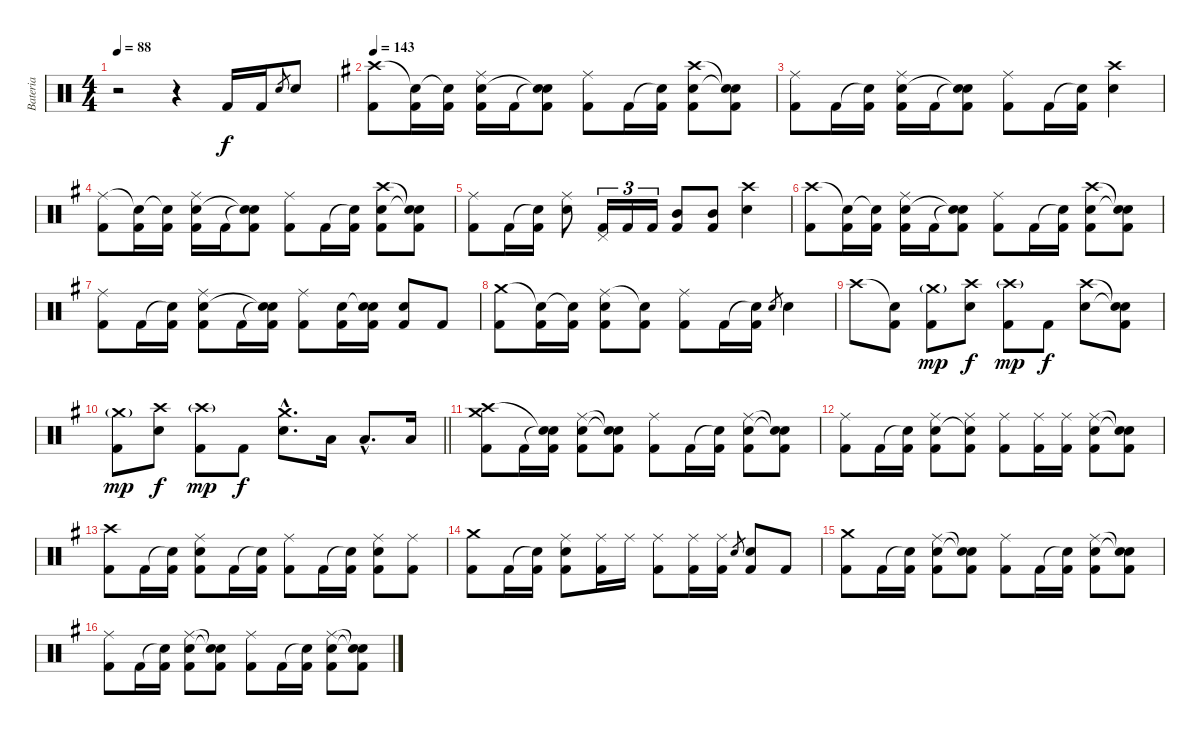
\track ("Bateria" "Bateria") {instrument percussion}
\staff {score}
\articulation defaults
\ts (4 4)
\tempo 88
\clef neutral
\ks c
r.2{dy f} r.4 "Kick (hit) 2".16 "Kick (hit) 2".16 "Electric Snare (hit)".8{gr} "Electric Snare (hit)".8 |
\tempo 143
\ks g
("Crash high (hit)" "Kick (hit) 2").8 ("Snare (hit)"{t} "Kick (hit) 2").16 ("Snare (hit)"{t} "Kick (hit) 2").16 ("Ride (middle)" "Electric Snare (hit)" "Kick (hit) 2").16 "Kick (hit) 2".16 ("Snare (hit)"{t} "Snare (hit)"{t} "Kick (hit) 2").8 ("Ride (middle)" "Kick (hit) 2").8 "Kick (hit) 2".16 ("Snare (hit)"{t} "Kick (hit) 2").16 ("Crash high (hit)" "Electric Snare (hit)" "Kick (hit) 2").8 ("Snare (hit)"{t} "Snare (hit)"{t} "Kick (hit) 2").8 |
("Ride (middle)" "Kick (hit) 2").8 "Kick (hit) 2".16 ("Snare (hit)"{t} "Kick (hit) 2").16 ("Ride (middle)" "Electric Snare (hit)" "Kick (hit) 2").16 "Kick (hit) 2".16 ("Snare (hit)"{t} "Snare (hit)"{t} "Kick (hit) 2").8 ("Ride (middle)" "Kick (hit) 2").8 "Kick (hit) 2".16 ("Snare (hit)"{t} "Kick (hit) 2").16 ("Crash high (hit)" "Electric Snare (hit)").4 |
("Ride (middle)" "Kick (hit) 2").8 ("Snare (hit)"{t} "Kick (hit) 2").16 ("Snare (hit)"{t} "Kick (hit) 2").16 ("Ride (middle)" "Electric Snare (hit)" "Kick (hit) 2").16 "Kick (hit) 2".16 ("Snare (hit)"{t} "Snare (hit)"{t} "Kick (hit) 2").8 ("Ride (middle)" "Kick (hit) 2").8 "Kick (hit) 2".16 ("Snare (hit)"{t} "Kick (hit) 2").16 ("Crash high (hit)" "Electric Snare (hit)" "Kick (hit) 2").8 ("Snare (hit)"{t} "Snare (hit)"{t} "Kick (hit) 2").8 |
("Ride (middle)" "Kick (hit) 2").8 "Kick (hit) 2".16 ("Snare (hit)"{t} "Kick (hit) 2").16 ("Ride (middle)" "Electric Snare (hit)").8 ("Pedal Hi-Hat (hit)" "Kick (hit) 2").16{tu (3 2)} "Kick (hit) 2".16{tu (3 2)} "Kick (hit) 2".16{tu (3 2)} ("Mid Tom (hit)" "Kick (hit) 2").8 ("Mid Tom (hit)" "Kick (hit) 2").8 ("Crash high (hit)" "Electric Snare (hit)").4 |
("Crash high (hit)" "Kick (hit) 2").8 ("Snare (hit)"{t} "Kick (hit) 2").16 ("Snare (hit)"{t} "Kick (hit) 2").16 ("Ride (middle)" "Electric Snare (hit)" "Kick (hit) 2").16 "Kick (hit) 2".16 ("Snare (hit)"{t} "Snare (hit)"{t} "Kick (hit) 2").8 ("Ride (middle)" "Kick (hit) 2").8 "Kick (hit) 2".16 ("Snare (hit)"{t} "Kick (hit) 2").16 ("Crash high (hit)" "Electric Snare (hit)" "Kick (hit) 2").8 ("Snare (hit)"{t} "Snare (hit)"{t} "Kick (hit) 2").8 |
("Ride (middle)" "Kick (hit) 2").8 "Kick (hit) 2".16 ("Snare (hit)"{t} "Kick (hit) 2").16 ("Ride (middle)" "Electric Snare (hit)" "Kick (hit) 2").8 "Kick (hit) 2".16 ("Snare (hit)"{t} "Snare (hit)"{t} "Kick (hit) 2").16 ("Ride (middle)" "Kick (hit) 2").8 ("Electric Snare (hit)" "Kick (hit) 2").16 ("Snare (hit)"{t} "Electric Snare (hit)" "Kick (hit) 2").16 ("Electric Snare (hit)" "Kick (hit) 2").8 "Kick (hit) 2".8 |
("Crash medium (hit)" "Kick (hit) 2").8 ("Snare (hit)"{t} "Kick (hit) 2").16 ("Snare (hit)"{t} "Kick (hit) 2").16 ("Ride (middle)" "Electric Snare (hit)" "Kick (hit) 2").8 ("Snare (hit)"{t} "Kick (hit) 2").8 ("Ride (middle)" "Kick (hit) 2").8 "Kick (hit) 2".16 ("Snare (hit)"{t} "Kick (hit) 2").16 "Electric Snare (hit)".8{gr} "Electric Snare (hit)".4 |
"Crash high (hit)".8 ("Snare (hit)"{t} "Kick (hit) 2").8 ("Crash medium (hit)"{g} "Kick (hit) 2").8{dy mp} ("Crash high (hit)" "Electric Snare (hit)").8{dy f} ("Crash high (hit)"{g} "Kick (hit) 2").8{dy mp} "Kick (hit) 2".8{dy f} ("Crash high (hit)" "Electric Snare (hit)").8 ("Snare (hit)"{t} "Snare (hit)"{t} "Kick (hit) 2").8 |
\barLineRight lightlight
("Crash medium (hit)"{g} "Kick (hit) 2").8{dy mp} ("Crash high (hit)" "Electric Snare (hit)").8{dy f} ("Crash high (hit)"{g} "Kick (hit) 2").8{dy mp} "Kick (hit) 2".8{dy f} ("Crash medium (hit)"{hac} "Electric Snare (hit)"{hac}).8{d} "Low Tom (hit)".16 "Low Tom (hit)"{hac}.8{d} "Low Tom (hit)".16 |
("Crash medium (hit)" "Crash high (hit)" "Kick (hit) 2").8 "Kick (hit) 2".16 ("Snare (hit)"{t} "Snare (hit)"{t} "Kick (hit) 2").16 ("Ride (middle)" "Electric Snare (hit)" "Kick (hit) 2").8 ("Snare (hit)"{t} "Snare (hit)"{t} "Kick (hit) 2").8 ("Ride (middle)" "Kick (hit) 2").8 "Kick (hit) 2".16 ("Snare (hit)"{t} "Kick (hit) 2").16 ("Ride (middle)" "Electric Snare (hit)" "Kick (hit) 2").8 ("Snare (hit)"{t} "Snare (hit)"{t} "Kick (hit) 2").8 |
("Ride (middle)" "Kick (hit) 2").8 "Kick (hit) 2".16 ("Snare (hit)"{t} "Kick (hit) 2").16 ("Ride (middle)" "Electric Snare (hit)" "Kick (hit) 2").8 ("Ride (middle)" "Snare (hit)"{t} "Kick (hit) 2").8 ("Ride (middle)" "Kick (hit) 2").8 ("Ride (middle)" "Kick (hit) 2").16 ("Ride (middle)" "Kick (hit) 2").16 ("Ride (middle)" "Electric Snare (hit)" "Kick (hit) 2").8 ("Snare (hit)"{t} "Snare (hit)"{t} "Kick (hit) 2").8 |
("Crash high (hit)" "Kick (hit) 2").8 "Kick (hit) 2".16 ("Snare (hit)"{t} "Kick (hit) 2").16 ("Ride (middle)" "Electric Snare (hit)" "Kick (hit) 2").8 "Kick (hit) 2".16 ("Snare (hit)"{t} "Kick (hit) 2").16 ("Ride (middle)" "Kick (hit) 2").8 "Kick (hit) 2".16 ("Snare (hit)"{t} "Kick (hit) 2").16 ("Ride (middle)" "Electric Snare (hit)" "Kick (hit) 2").8 ("Ride (middle)" "Kick (hit) 2").8 |
("Crash medium (hit)" "Kick (hit) 2").8 "Kick (hit) 2".16 ("Snare (hit)"{t} "Kick (hit) 2").16 ("Ride (middle)" "Electric Snare (hit)" "Kick (hit) 2").8 ("Ride (middle)" "Kick (hit) 2").16 "Ride (middle)".16 ("Ride (middle)" "Kick (hit) 2").8 ("Ride (middle)" "Kick (hit) 2").16 ("Ride (middle)" "Kick (hit) 2").16 "Electric Snare (hit)".8{gr} ("Electric Snare (hit)" "Kick (hit) 2").8 "Kick (hit) 2".8 |
("Crash medium (hit)" "Kick (hit) 2").8 "Kick (hit) 2".16 ("Snare (hit)"{t} "Kick (hit) 2").16 ("Ride (middle)" "Electric Snare (hit)" "Kick (hit) 2").8 ("Snare (hit)"{t} "Snare (hit)"{t} "Kick (hit) 2").8 ("Ride (middle)" "Kick (hit) 2").8 "Kick (hit) 2".16 ("Snare (hit)"{t} "Kick (hit) 2").16 ("Ride (middle)" "Electric Snare (hit)" "Kick (hit) 2").8 ("Snare (hit)"{t} "Snare (hit)"{t} "Kick (hit) 2").8 |
("Ride (middle)" "Kick (hit) 2").8 "Kick (hit) 2".16 ("Snare (hit)"{t} "Kick (hit) 2").16 ("Ride (middle)" "Electric Snare (hit)" "Kick (hit) 2").8 ("Snare (hit)"{t} "Snare (hit)"{t} "Kick (hit) 2").8 ("Ride (middle)" "Kick (hit) 2").8 "Kick (hit) 2".16 ("Snare (hit)"{t} "Kick (hit) 2").16 ("Ride (middle)" "Electric Snare (hit)" "Kick (hit) 2").8 ("Snare (hit)"{t} "Snare (hit)"{t} "Kick (hit) 2").8
